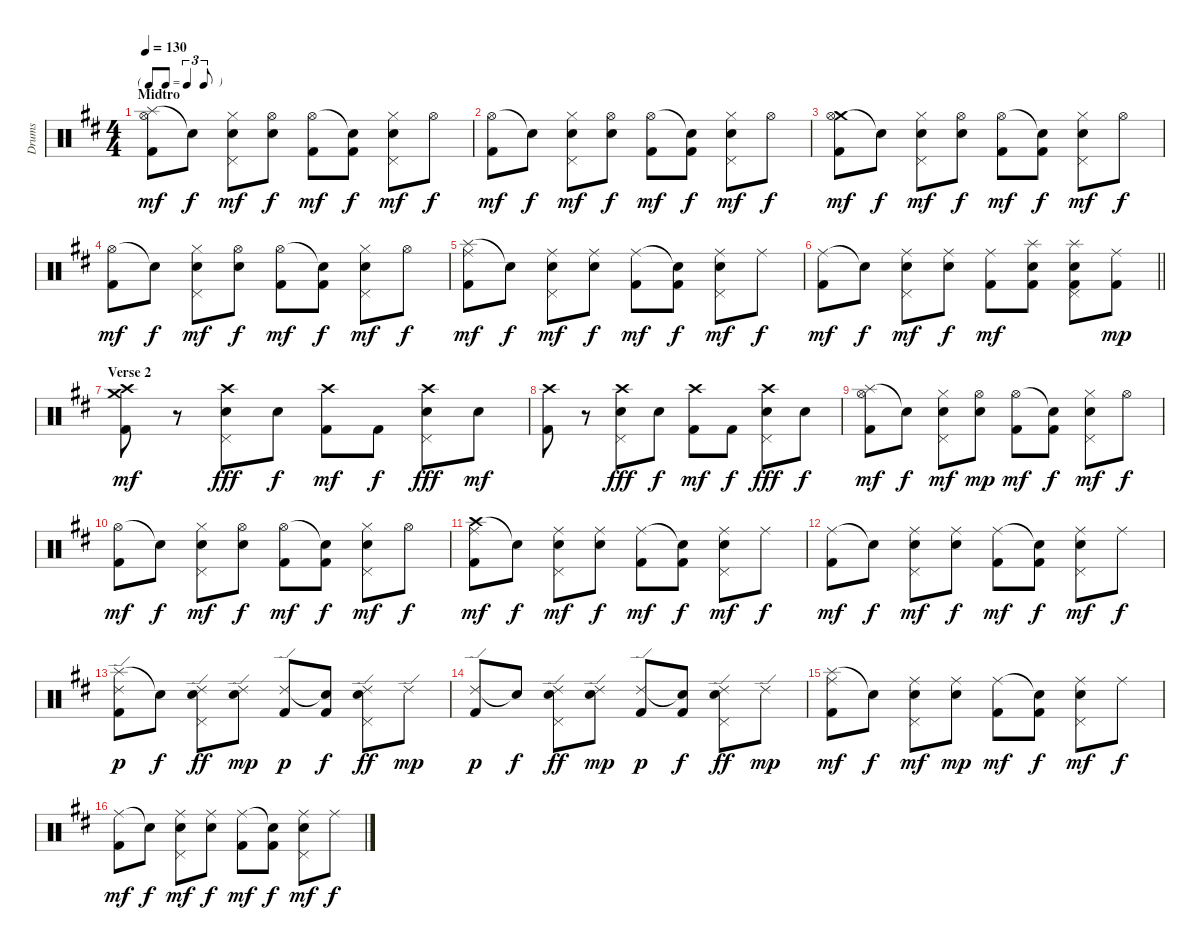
\track ("Drums" "Drums") {instrument percussion}
\staff {score}
\articulation defaults
\ts (4 4)
\tf triplet8th
\section ("" "Midtro")
\tempo 130
\clef neutral
\ks d
("Splash (hit)" "Hi-Hat (open)" "Kick (hit) 2").8{dy mf} "Snare (hit)"{t}.8{dy f} ("Hi-Hat (closed)" "Pedal Hi-Hat (hit)" "Snare (hit) 2").8{dy mf} ("Hi-Hat (open)" "Snare (hit) 2").8{dy f} ("Hi-Hat (open)" "Kick (hit) 2").8{dy mf} ("Snare (hit)"{t} "Kick (hit) 2").8{dy f} ("Hi-Hat (closed)" "Pedal Hi-Hat (hit)" "Snare (hit) 2").8{dy mf} "Hi-Hat (open)".8{dy f} |
("Hi-Hat (open)" "Kick (hit) 2").8{dy mf} "Snare (hit)"{t}.8{dy f} ("Hi-Hat (closed)" "Pedal Hi-Hat (hit)" "Snare (hit) 2").8{dy mf} ("Hi-Hat (open)" "Snare (hit) 2").8{dy f} ("Hi-Hat (open)" "Kick (hit) 2").8{dy mf} ("Snare (hit)"{t} "Kick (hit) 2").8{dy f} ("Hi-Hat (closed)" "Pedal Hi-Hat (hit)" "Snare (hit) 2").8{dy mf} "Hi-Hat (open)".8{dy f} |
("Crash medium (hit)" "Hi-Hat (open)" "Kick (hit) 2").8{dy mf} "Snare (hit)"{t}.8{dy f} ("Hi-Hat (closed)" "Pedal Hi-Hat (hit)" "Snare (hit) 2").8{dy mf} ("Hi-Hat (open)" "Snare (hit) 2").8{dy f} ("Hi-Hat (open)" "Kick (hit) 2").8{dy mf} ("Snare (hit)"{t} "Kick (hit) 2").8{dy f} ("Hi-Hat (closed)" "Pedal Hi-Hat (hit)" "Snare (hit) 2").8{dy mf} "Hi-Hat (open)".8{dy f} |
("Hi-Hat (open)" "Kick (hit) 2").8{dy mf} "Snare (hit)"{t}.8{dy f} ("Hi-Hat (closed)" "Pedal Hi-Hat (hit)" "Snare (hit) 2").8{dy mf} ("Hi-Hat (open)" "Snare (hit) 2").8{dy f} ("Hi-Hat (open)" "Kick (hit) 2").8{dy mf} ("Snare (hit)"{t} "Kick (hit) 2").8{dy f} ("Hi-Hat (closed)" "Pedal Hi-Hat (hit)" "Snare (hit) 2").8{dy mf} "Hi-Hat (open)".8{dy f} |
("Splash (hit)" "Ride (middle)" "Kick (hit) 2").8{dy mf} "Snare (hit)"{t}.8{dy f} ("Ride (middle)" "Pedal Hi-Hat (hit)" "Snare (hit) 2").8{dy mf} ("Ride (middle)" "Snare (hit) 2").8{dy f} ("Ride (middle)" "Kick (hit) 2").8{dy mf} ("Snare (hit)"{t} "Kick (hit) 2").8{dy f} ("Ride (middle)" "Pedal Hi-Hat (hit)" "Snare (hit) 2").8{dy mf} "Ride (middle)".8{dy f} |
\barLineRight lightlight
("Ride (middle)" "Kick (hit) 2").8{dy mf} "Snare (hit)"{t}.8{dy f} ("Ride (middle)" "Pedal Hi-Hat (hit)" "Snare (hit) 2").8{dy mf} ("Ride (middle)" "Snare (hit) 2").8{dy f} ("Ride (middle)" "Kick (hit) 2").8{dy mf} ("Splash (hit)" "Snare (hit) 2" "Kick (hit) 2").8 ("Splash (hit)" "Pedal Hi-Hat (hit)" "Snare (hit) 2" "Kick (hit) 2").8 ("Ride (middle)" "Kick (hit) 2").8{dy mp} |
\section ("" "Verse 2")
("Crash medium (hit)" "Crash high (hit)" "Kick (hit) 2").8{dy mf} r.8 ("Crash high (hit)" "Pedal Hi-Hat (hit)" "Snare (hit) 2").8{dy fff} "Snare (hit) 2".8{dy f} ("Crash high (hit)" "Kick (hit) 2").8{dy mf} "Kick (hit) 2".8{dy f} ("Crash high (hit)" "Pedal Hi-Hat (hit)" "Snare (hit) 2").8{dy fff} "Snare (hit) 2".8{dy mf} |
("Crash high (hit)" "Kick (hit) 2").8 r.8 ("Crash high (hit)" "Pedal Hi-Hat (hit)" "Snare (hit) 2").8{dy fff} "Snare (hit) 2".8{dy f} ("Crash high (hit)" "Kick (hit) 2").8{dy mf} "Kick (hit) 2".8{dy f} ("Crash high (hit)" "Pedal Hi-Hat (hit)" "Snare (hit) 2").8{dy fff} "Snare (hit) 2".8{dy f} |
("Splash (hit)" "Hi-Hat (open)" "Kick (hit) 2").8{dy mf} "Snare (hit)"{t}.8{dy f} ("Hi-Hat (closed)" "Pedal Hi-Hat (hit)" "Snare (hit) 2").8{dy mf} ("Hi-Hat (open)" "Snare (hit) 2").8{dy mp} ("Hi-Hat (open)" "Kick (hit) 2").8{dy mf} ("Snare (hit)"{t} "Kick (hit) 2").8{dy f} ("Hi-Hat (closed)" "Pedal Hi-Hat (hit)" "Snare (hit) 2").8{dy mf} "Hi-Hat (open)".8{dy f} |
("Hi-Hat (open)" "Kick (hit) 2").8{dy mf} "Snare (hit)"{t}.8{dy f} ("Hi-Hat (closed)" "Pedal Hi-Hat (hit)" "Snare (hit) 2").8{dy mf} ("Hi-Hat (open)" "Snare (hit) 2").8{dy f} ("Hi-Hat (open)" "Kick (hit) 2").8{dy mf} ("Snare (hit)"{t} "Kick (hit) 2").8{dy f} ("Hi-Hat (closed)" "Pedal Hi-Hat (hit)" "Snare (hit) 2").8{dy mf} "Hi-Hat (open)".8{dy f} |
("Crash high (hit)" "Ride (middle)" "Kick (hit) 2").8{dy mf} "Snare (hit)"{t}.8{dy f} ("Ride (middle)" "Pedal Hi-Hat (hit)" "Snare (hit) 2").8{dy mf} ("Ride (middle)" "Snare (hit) 2").8{dy f} ("Ride (middle)" "Kick (hit) 2").8{dy mf} ("Snare (hit)"{t} "Kick (hit) 2").8{dy f} ("Ride (middle)" "Pedal Hi-Hat (hit)" "Snare (hit) 2").8{dy mf} "Ride (middle)".8{dy f} |
("Ride (middle)" "Kick (hit) 2").8{dy mf} "Snare (hit)"{t}.8{dy f} ("Ride (middle)" "Pedal Hi-Hat (hit)" "Snare (hit) 2").8{dy mf} ("Ride (middle)" "Snare (hit) 2").8{dy f} ("Ride (middle)" "Kick (hit) 2").8{dy mf} ("Snare (hit)"{t} "Kick (hit) 2").8{dy f} ("Ride (middle)" "Pedal Hi-Hat (hit)" "Snare (hit) 2").8{dy mf} "Ride (middle)".8{dy f} |
("Splash (hit)" "Ride (edge) 2" "Kick (hit) 2").8{dy p} "Snare (hit)"{t}.8{dy f} ("Ride (edge) 2" "Pedal Hi-Hat (hit)" "Snare (hit) 2").8{dy ff} ("Ride (edge) 2" "Snare (hit) 2").8{dy mp} ("Ride (edge) 2" "Kick (hit) 2").8{dy p} ("Snare (hit)"{t} "Kick (hit) 2").8{dy f} ("Ride (edge) 2" "Pedal Hi-Hat (hit)" "Snare (hit) 2").8{dy ff} "Ride (edge) 2".8{dy mp} |
("Ride (edge) 2" "Kick (hit) 2").8{dy p} "Snare (hit)"{t}.8{dy f} ("Ride (edge) 2" "Pedal Hi-Hat (hit)" "Snare (hit) 2").8{dy ff} ("Ride (edge) 2" "Snare (hit) 2").8{dy mp} ("Ride (edge) 2" "Kick (hit) 2").8{dy p} ("Snare (hit)"{t} "Kick (hit) 2").8{dy f} ("Ride (edge) 2" "Pedal Hi-Hat (hit)" "Snare (hit) 2").8{dy ff} "Ride (edge) 2".8{dy mp} |
("Splash (hit)" "Ride (middle)" "Kick (hit) 2").8{dy mf} "Snare (hit)"{t}.8{dy f} ("Ride (middle)" "Pedal Hi-Hat (hit)" "Snare (hit) 2").8{dy mf} ("Ride (middle)" "Snare (hit) 2").8{dy mp} ("Ride (middle)" "Kick (hit) 2").8{dy mf} ("Snare (hit)"{t} "Kick (hit) 2").8{dy f} ("Ride (middle)" "Pedal Hi-Hat (hit)" "Snare (hit) 2").8{dy mf} "Ride (middle)".8{dy f} |
("Ride (middle)" "Kick (hit) 2").8{dy mf} "Snare (hit)"{t}.8{dy f} ("Ride (middle)" "Pedal Hi-Hat (hit)" "Snare (hit) 2").8{dy mf} ("Ride (middle)" "Snare (hit) 2").8{dy f} ("Ride (middle)" "Kick (hit) 2").8{dy mf} ("Snare (hit)"{t} "Kick (hit) 2").8{dy f} ("Ride (middle)" "Pedal Hi-Hat (hit)" "Snare (hit) 2").8{dy mf} "Ride (middle)".8{dy f}
